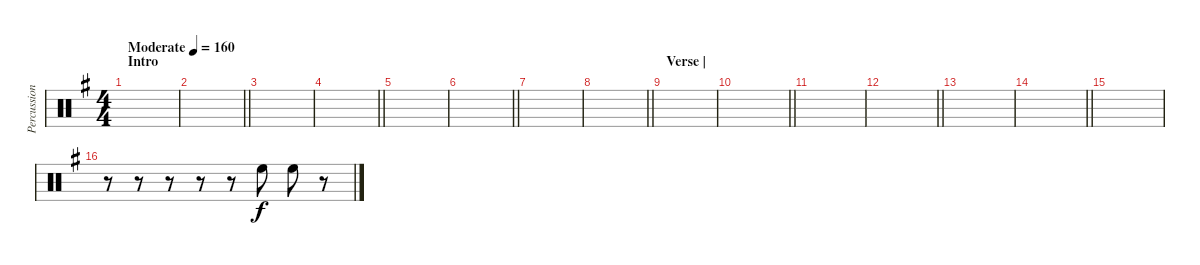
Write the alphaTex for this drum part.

\track ("Percussion" "Percussion") {instrument percussion}
\staff {score}
\articulation defaults
\ts (4 4)
\section ("" "Intro")
\tempo (160 "Moderate")
\clef neutral
\ks g
|
\barLineRight lightlight
|
|
\barLineRight lightlight
|
|
\barLineRight lightlight
|
|
\barLineRight lightlight
|
\section ("" "Verse |")
|
\barLineRight lightlight
|
|
\barLineRight lightlight
|
|
\barLineRight lightlight
|
|
r.8 r.8 r.8 r.8 r.8 "High Floor Tom (hit)".8 "High Floor Tom (hit)".8 r.8
